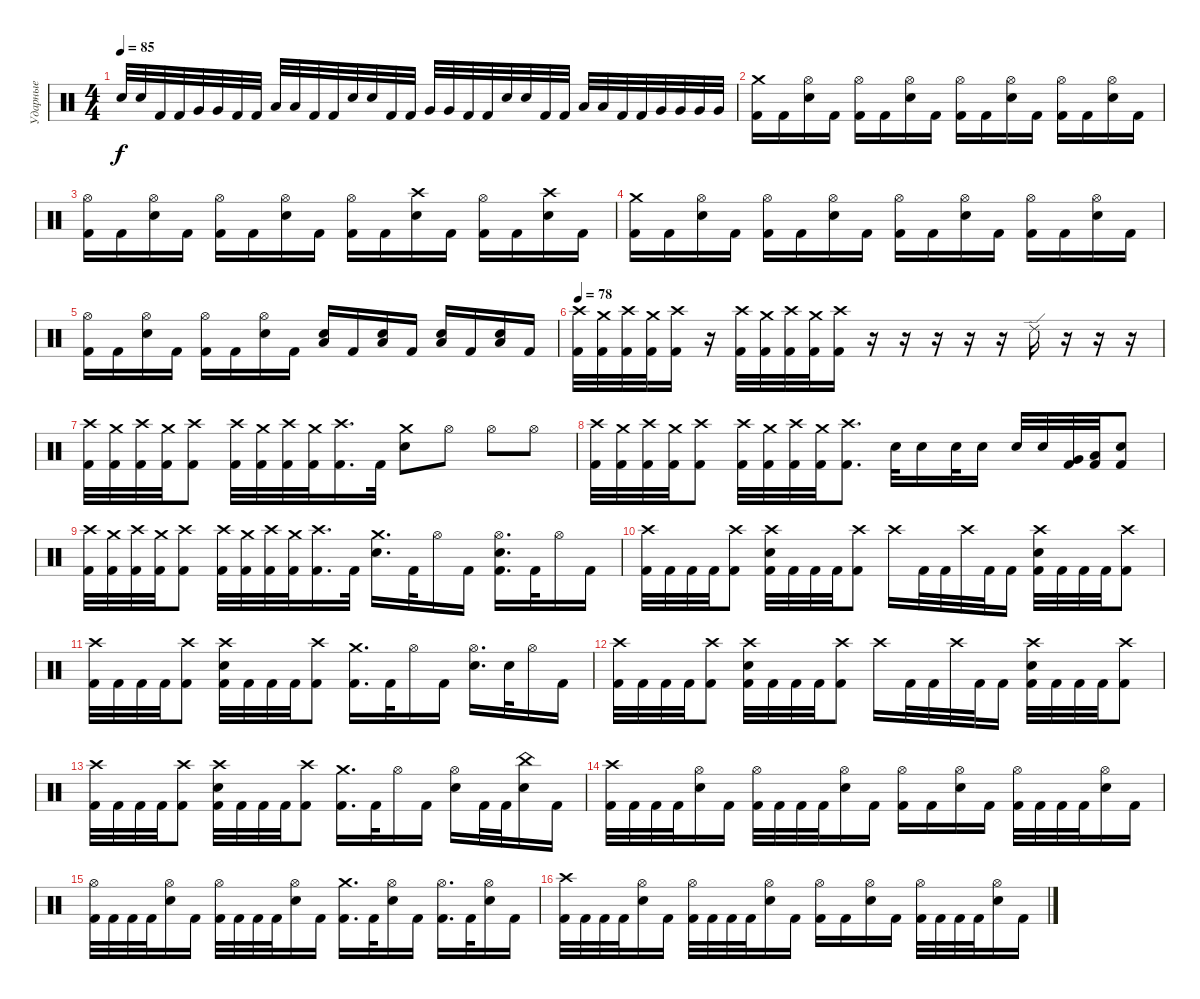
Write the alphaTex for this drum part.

\track ("Ударные" "Ударные") {instrument percussion}
\staff {score}
\articulation defaults
\ts (4 4)
\tempo 85
\clef neutral
\ks c "Electric Snare (hit)".32{dy f} "Electric Snare (hit)".32 "Kick (hit) 2".32 "Kick (hit) 2".32 "Very Low Tom (hit)".32 "Very Low Tom (hit)".32 "Kick (hit) 2".32 "Kick (hit) 2".32 "Low Floor Tom (hit)".32 "Low Floor Tom (hit)".32 "Kick (hit) 2".32 "Kick (hit) 2".32 "Electric Snare (hit)".32 "Electric Snare (hit)".32 "Kick (hit) 2".32 "Kick (hit) 2".32 "Very Low Tom (hit)".32 "Very Low Tom (hit)".32 "Kick (hit) 2".32 "Kick (hit) 2".32 "Electric Snare (hit)".32 "Electric Snare (hit)".32 "Kick (hit) 2".32 "Kick (hit) 2".32 "Low Floor Tom (hit)".32 "Low Floor Tom (hit)".32 "Kick (hit) 2".32 "Kick (hit) 2".32 "Very Low Tom (hit)".32 "Very Low Tom (hit)".32 "Very Low Tom (hit)".32 "Very Low Tom (hit)".32
|
("Crash medium (hit)" "Kick (hit) 2").16 "Kick (hit) 2".16 ("Hi-Hat (open)" "Electric Snare (hit)").16 "Kick (hit) 2".16 ("Hi-Hat (open)" "Kick (hit) 2").16 "Kick (hit) 2".16 ("Hi-Hat (open)" "Electric Snare (hit)").16 "Kick (hit) 2".16 ("Hi-Hat (open)" "Kick (hit) 2").16 "Kick (hit) 2".16 ("Hi-Hat (open)" "Electric Snare (hit)").16 "Kick (hit) 2".16 ("Hi-Hat (open)" "Kick (hit) 2").16 "Kick (hit) 2".16 ("Hi-Hat (open)" "Electric Snare (hit)").16 "Kick (hit) 2".16 |
("Hi-Hat (open)" "Kick (hit) 2").16 "Kick (hit) 2".16 ("Hi-Hat (open)" "Electric Snare (hit)").16 "Kick (hit) 2".16 ("Hi-Hat (open)" "Kick (hit) 2").16 "Kick (hit) 2".16 ("Hi-Hat (open)" "Electric Snare (hit)").16 "Kick (hit) 2".16 ("Hi-Hat (open)" "Kick (hit) 2").16 "Kick (hit) 2".16 ("Crash high (hit)" "Electric Snare (hit)").16 "Kick (hit) 2".16 ("Hi-Hat (open)" "Kick (hit) 2").16 "Kick (hit) 2".16 ("Crash high (hit)" "Electric Snare (hit)").16 "Kick (hit) 2".16 |
("Crash medium (hit)" "Kick (hit) 2").16 "Kick (hit) 2".16 ("Hi-Hat (open)" "Electric Snare (hit)").16 "Kick (hit) 2".16 ("Hi-Hat (open)" "Kick (hit) 2").16 "Kick (hit) 2".16 ("Hi-Hat (open)" "Electric Snare (hit)").16 "Kick (hit) 2".16 ("Hi-Hat (open)" "Kick (hit) 2").16 "Kick (hit) 2".16 ("Hi-Hat (open)" "Electric Snare (hit)").16 "Kick (hit) 2".16 ("Hi-Hat (open)" "Kick (hit) 2").16 "Kick (hit) 2".16 ("Hi-Hat (open)" "Electric Snare (hit)").16 "Kick (hit) 2".16 |
("Hi-Hat (open)" "Kick (hit) 2").16 "Kick (hit) 2".16 ("Hi-Hat (open)" "Electric Snare (hit)").16 "Kick (hit) 2".16 ("Hi-Hat (open)" "Kick (hit) 2").16 "Kick (hit) 2".16 ("Hi-Hat (open)" "Electric Snare (hit)").16 "Kick (hit) 2".16 ("Low Floor Tom (hit)" "Electric Snare (hit)").16 "Kick (hit) 2".16 ("Low Floor Tom (hit)" "Electric Snare (hit)").16 "Kick (hit) 2".16 ("Low Floor Tom (hit)" "Electric Snare (hit)").16 "Kick (hit) 2".16 ("Low Floor Tom (hit)" "Electric Snare (hit)").16 "Kick (hit) 2".16 |
\tempo 78
("Crash high (hit)" "Kick (hit) 2").32 ("Crash medium (hit)" "Kick (hit) 2").32 ("Crash high (hit)" "Kick (hit) 2").32 ("Crash medium (hit)" "Kick (hit) 2").32 ("Crash high (hit)" "Kick (hit) 2").16 r.16 ("Crash high (hit)" "Kick (hit) 2").32 ("Crash medium (hit)" "Kick (hit) 2").32 ("Crash high (hit)" "Kick (hit) 2").32 ("Crash medium (hit)" "Kick (hit) 2").32 ("Crash high (hit)" "Kick (hit) 2").16 r.16 r.16 r.16 r.16 r.16 "Ride (edge) 2".16 r.16 r.16 r.16 |
("Crash high (hit)" "Kick (hit) 2").32 ("Crash medium (hit)" "Kick (hit) 2").32 ("Crash high (hit)" "Kick (hit) 2").32 ("Crash medium (hit)" "Kick (hit) 2").32 ("Crash high (hit)" "Kick (hit) 2").8 ("Crash high (hit)" "Kick (hit) 2").32 ("Crash medium (hit)" "Kick (hit) 2").32 ("Crash high (hit)" "Kick (hit) 2").32 ("Crash medium (hit)" "Kick (hit) 2").32 ("Crash high (hit)" "Kick (hit) 2").16{d} "Kick (hit) 2".32 ("Crash medium (hit)" "Electric Snare (hit)").8 "Hi-Hat (open)".8 "Hi-Hat (open)".8 "Hi-Hat (open)".8 |
("Crash high (hit)" "Kick (hit) 2").32 ("Crash medium (hit)" "Kick (hit) 2").32 ("Crash high (hit)" "Kick (hit) 2").32 ("Crash medium (hit)" "Kick (hit) 2").32 ("Crash high (hit)" "Kick (hit) 2").8 ("Crash high (hit)" "Kick (hit) 2").32 ("Crash medium (hit)" "Kick (hit) 2").32 ("Crash high (hit)" "Kick (hit) 2").32 ("Crash medium (hit)" "Kick (hit) 2").32 ("Crash high (hit)" "Kick (hit) 2").8{d} "Electric Snare (hit)".32 "Electric Snare (hit)".16 "Electric Snare (hit)".32 "Electric Snare (hit)".16 "Electric Snare (hit)".32 "Electric Snare (hit)".32 ("Very Low Tom (hit)" "Kick (hit) 2").32 ("Low Floor Tom (hit)" "Kick (hit) 2").32 ("Electric Snare (hit)" "Kick (hit) 2").8 |
("Crash high (hit)" "Kick (hit) 2").32 ("Crash medium (hit)" "Kick (hit) 2").32 ("Crash high (hit)" "Kick (hit) 2").32 ("Crash medium (hit)" "Kick (hit) 2").32 ("Crash high (hit)" "Kick (hit) 2").8 ("Crash high (hit)" "Kick (hit) 2").32 ("Crash medium (hit)" "Kick (hit) 2").32 ("Crash high (hit)" "Kick (hit) 2").32 ("Crash medium (hit)" "Kick (hit) 2").32 ("Crash high (hit)" "Kick (hit) 2").16{d} "Kick (hit) 2".32 ("Crash medium (hit)" "Electric Snare (hit)").16{d} "Kick (hit) 2".32 "Hi-Hat (open)".16 "Kick (hit) 2".16 ("Hi-Hat (open)" "Electric Snare (hit)" "Kick (hit) 2").16{d} "Kick (hit) 2".32 "Hi-Hat (open)".16 "Kick (hit) 2".16 |
("Crash high (hit)" "Kick (hit) 2").32 "Kick (hit) 2".32 "Kick (hit) 2".32 "Kick (hit) 2".32 ("Crash high (hit)" "Kick (hit) 2").8 ("Crash high (hit)" "Electric Snare (hit)" "Kick (hit) 2").32 "Kick (hit) 2".32 "Kick (hit) 2".32 "Kick (hit) 2".32 ("Crash high (hit)" "Kick (hit) 2").8 "Crash high (hit)".16 "Kick (hit) 2".32 "Kick (hit) 2".32 "Crash high (hit)".32 "Kick (hit) 2".32 "Kick (hit) 2".16 ("Crash high (hit)" "Electric Snare (hit)" "Kick (hit) 2").32 "Kick (hit) 2".32 "Kick (hit) 2".32 "Kick (hit) 2".32 ("Crash high (hit)" "Kick (hit) 2").8 |
("Crash high (hit)" "Kick (hit) 2").32 "Kick (hit) 2".32 "Kick (hit) 2".32 "Kick (hit) 2".32 ("Crash high (hit)" "Kick (hit) 2").8 ("Crash high (hit)" "Electric Snare (hit)" "Kick (hit) 2").32 "Kick (hit) 2".32 "Kick (hit) 2".32 "Kick (hit) 2".32 ("Crash high (hit)" "Kick (hit) 2").8 ("Crash medium (hit)" "Kick (hit) 2").16{d} "Kick (hit) 2".32 "Hi-Hat (open)".16 "Kick (hit) 2".16 ("Hi-Hat (open)" "Electric Snare (hit)").16{d} "Electric Snare (hit)".32 "Hi-Hat (open)".16 "Kick (hit) 2".16 |
("Crash high (hit)" "Kick (hit) 2").32 "Kick (hit) 2".32 "Kick (hit) 2".32 "Kick (hit) 2".32 ("Crash high (hit)" "Kick (hit) 2").8 ("Crash high (hit)" "Electric Snare (hit)" "Kick (hit) 2").32 "Kick (hit) 2".32 "Kick (hit) 2".32 "Kick (hit) 2".32 ("Crash high (hit)" "Kick (hit) 2").8 "Crash high (hit)".16 "Kick (hit) 2".32 "Kick (hit) 2".32 "Crash high (hit)".32 "Kick (hit) 2".32 "Kick (hit) 2".16 ("Crash high (hit)" "Electric Snare (hit)" "Kick (hit) 2").32 "Kick (hit) 2".32 "Kick (hit) 2".32 "Kick (hit) 2".32 ("Crash high (hit)" "Kick (hit) 2").8 |
("Crash high (hit)" "Kick (hit) 2").32 "Kick (hit) 2".32 "Kick (hit) 2".32 "Kick (hit) 2".32 ("Crash high (hit)" "Kick (hit) 2").8 ("Crash high (hit)" "Electric Snare (hit)" "Kick (hit) 2").32 "Kick (hit) 2".32 "Kick (hit) 2".32 "Kick (hit) 2".32 ("Crash high (hit)" "Kick (hit) 2").8 ("Crash medium (hit)" "Kick (hit) 2").16{d} "Kick (hit) 2".32 "Hi-Hat (open)".16 "Kick (hit) 2".16 ("Hi-Hat (open)" "Electric Snare (hit)").16 "Kick (hit) 2".32 "Kick (hit) 2".32 ("China (hit)" "Electric Snare (hit)").16 "Kick (hit) 2".16 |
("Crash high (hit)" "Kick (hit) 2").32 "Kick (hit) 2".32 "Kick (hit) 2".32 "Kick (hit) 2".32 ("Hi-Hat (open)" "Electric Snare (hit)").16 "Kick (hit) 2".16 ("Hi-Hat (open)" "Kick (hit) 2").32 "Kick (hit) 2".32 "Kick (hit) 2".32 "Kick (hit) 2".32 ("Hi-Hat (open)" "Electric Snare (hit)").16 "Kick (hit) 2".16 ("Hi-Hat (open)" "Kick (hit) 2").16 "Kick (hit) 2".16 ("Hi-Hat (open)" "Electric Snare (hit)").16 "Kick (hit) 2".16 ("Hi-Hat (open)" "Kick (hit) 2").32 "Kick (hit) 2".32 "Kick (hit) 2".32 "Kick (hit) 2".32 ("Hi-Hat (open)" "Electric Snare (hit)").16 "Kick (hit) 2".16 |
("Hi-Hat (open)" "Kick (hit) 2").32 "Kick (hit) 2".32 "Kick (hit) 2".32 "Kick (hit) 2".32 ("Hi-Hat (open)" "Electric Snare (hit)").16 "Kick (hit) 2".16 ("Hi-Hat (open)" "Kick (hit) 2").32 "Kick (hit) 2".32 "Kick (hit) 2".32 "Kick (hit) 2".32 ("Hi-Hat (open)" "Electric Snare (hit)").16 "Kick (hit) 2".16 ("Crash medium (hit)" "Kick (hit) 2").16{d} "Kick (hit) 2".32 ("Hi-Hat (open)" "Electric Snare (hit)").16 "Kick (hit) 2".16 ("Hi-Hat (open)" "Kick (hit) 2").16{d} "Kick (hit) 2".32 ("Hi-Hat (open)" "Electric Snare (hit)").16 "Kick (hit) 2".16 |
("Crash high (hit)" "Kick (hit) 2").32 "Kick (hit) 2".32 "Kick (hit) 2".32 "Kick (hit) 2".32 ("Hi-Hat (open)" "Electric Snare (hit)").16 "Kick (hit) 2".16 ("Hi-Hat (open)" "Kick (hit) 2").32 "Kick (hit) 2".32 "Kick (hit) 2".32 "Kick (hit) 2".32 ("Hi-Hat (open)" "Electric Snare (hit)").16 "Kick (hit) 2".16 ("Hi-Hat (open)" "Kick (hit) 2").16 "Kick (hit) 2".16 ("Hi-Hat (open)" "Electric Snare (hit)").16 "Kick (hit) 2".16 ("Hi-Hat (open)" "Kick (hit) 2").32 "Kick (hit) 2".32 "Kick (hit) 2".32 "Kick (hit) 2".32 ("Hi-Hat (open)" "Electric Snare (hit)").16 "Kick (hit) 2".16
